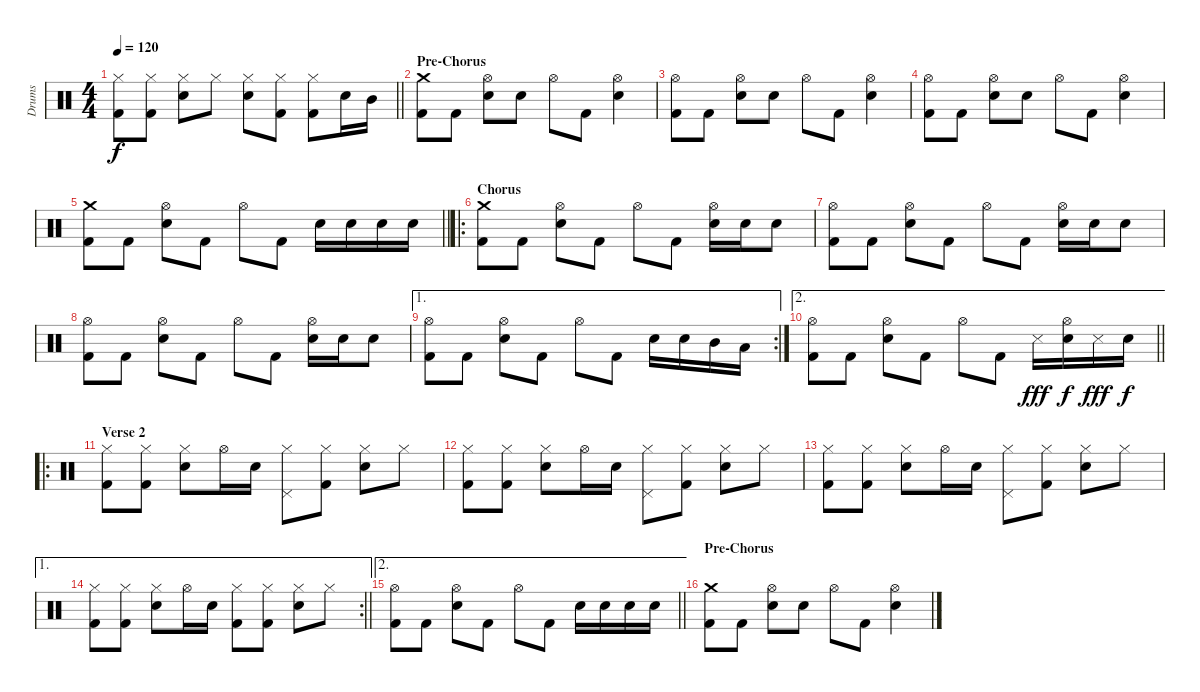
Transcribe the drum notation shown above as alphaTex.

\track ("Drums" "Drums") {instrument percussion}
\staff {score}
\articulation defaults
\ts (4 4)
\tempo 120
\clef neutral
\barLineRight lightlight
\ks c
("Hi-Hat (closed)" "Kick (hit) 2").8{dy f} ("Hi-Hat (closed)" "Kick (hit) 2").8 ("Hi-Hat (closed)" "Electric Snare (hit)").8 "Hi-Hat (closed)".8 ("Hi-Hat (closed)" "Electric Snare (hit)").8 ("Hi-Hat (closed)" "Kick (hit) 2").8 ("Hi-Hat (closed)" "Kick (hit) 2").8 "Electric Snare (hit)".16 "Mid Tom (hit)".16 |
\section ("" "Pre-Chorus")
("Crash medium (hit)" "Kick (hit) 2").8 "Kick (hit) 2".8 ("Hi-Hat (open)" "Electric Snare (hit)").8 "Electric Snare (hit)".8 "Hi-Hat (open)".8 "Kick (hit) 2".8 ("Hi-Hat (open)" "Electric Snare (hit)").4 |
("Hi-Hat (open)" "Kick (hit) 2").8 "Kick (hit) 2".8 ("Hi-Hat (open)" "Electric Snare (hit)").8 "Electric Snare (hit)".8 "Hi-Hat (open)".8 "Kick (hit) 2".8 ("Hi-Hat (open)" "Electric Snare (hit)").4 |
("Hi-Hat (open)" "Kick (hit) 2").8 "Kick (hit) 2".8 ("Hi-Hat (open)" "Electric Snare (hit)").8 "Electric Snare (hit)".8 "Hi-Hat (open)".8 "Kick (hit) 2".8 ("Hi-Hat (open)" "Electric Snare (hit)").4 |
\barLineRight lightlight
("Crash medium (hit)" "Kick (hit) 2").8 "Kick (hit) 2".8 ("Hi-Hat (open)" "Electric Snare (hit)").8 "Kick (hit) 2".8 "Hi-Hat (open)".8 "Kick (hit) 2".8 "Electric Snare (hit)".16 "Electric Snare (hit)".16 "Electric Snare (hit)".16 "Electric Snare (hit)".16 |
\ro
\section ("" "Chorus")
("Crash medium (hit)" "Kick (hit) 2").8 "Kick (hit) 2".8 ("Hi-Hat (open)" "Electric Snare (hit)").8 "Kick (hit) 2".8 "Hi-Hat (open)".8 "Kick (hit) 2".8 ("Hi-Hat (open)" "Electric Snare (hit)").16 "Electric Snare (hit)".16 "Electric Snare (hit)".8 |
("Hi-Hat (open)" "Kick (hit) 2").8 "Kick (hit) 2".8 ("Hi-Hat (open)" "Electric Snare (hit)").8 "Kick (hit) 2".8 "Hi-Hat (open)".8 "Kick (hit) 2".8 ("Hi-Hat (open)" "Electric Snare (hit)").16 "Electric Snare (hit)".16 "Electric Snare (hit)".8 |
("Hi-Hat (open)" "Kick (hit) 2").8 "Kick (hit) 2".8 ("Hi-Hat (open)" "Electric Snare (hit)").8 "Kick (hit) 2".8 "Hi-Hat (open)".8 "Kick (hit) 2".8 ("Hi-Hat (open)" "Electric Snare (hit)").16 "Electric Snare (hit)".16 "Electric Snare (hit)".8 |
\ae 1
\rc 2
("Hi-Hat (open)" "Kick (hit) 2").8 "Kick (hit) 2".8 ("Hi-Hat (open)" "Electric Snare (hit)").8 "Kick (hit) 2".8 "Hi-Hat (open)".8 "Kick (hit) 2".8 "Electric Snare (hit)".16 "Electric Snare (hit)".16 "Mid Tom (hit)".16 "Low Tom (hit)".16 |
\ae 2
\barLineRight lightlight
("Hi-Hat (open)" "Kick (hit) 2").8 "Kick (hit) 2".8 ("Hi-Hat (open)" "Electric Snare (hit)").8 "Kick (hit) 2".8 "Hi-Hat (open)".8 "Kick (hit) 2".8 "Snare (side stick) 3".16{dy fff} ("Hi-Hat (open)" "Electric Snare (hit)").16{dy f} "Snare (side stick) 3".16{dy fff} "Electric Snare (hit)".16{dy f} |
\ro
\section ("" "Verse 2")
("Hi-Hat (closed)" "Kick (hit) 2").8 ("Hi-Hat (closed)" "Kick (hit) 2").8 ("Hi-Hat (closed)" "Electric Snare (hit)").8 "Hi-Hat (open)".16 "Electric Snare (hit)".16 ("Hi-Hat (closed)" "Pedal Hi-Hat (hit)").8 ("Hi-Hat (closed)" "Kick (hit) 2").8 ("Hi-Hat (closed)" "Electric Snare (hit)").8 "Hi-Hat (closed)".8 |
("Hi-Hat (closed)" "Kick (hit) 2").8 ("Hi-Hat (closed)" "Kick (hit) 2").8 ("Hi-Hat (closed)" "Electric Snare (hit)").8 "Hi-Hat (open)".16 "Electric Snare (hit)".16 ("Hi-Hat (closed)" "Pedal Hi-Hat (hit)").8 ("Hi-Hat (closed)" "Kick (hit) 2").8 ("Hi-Hat (closed)" "Electric Snare (hit)").8 "Hi-Hat (closed)".8 |
("Hi-Hat (closed)" "Kick (hit) 2").8 ("Hi-Hat (closed)" "Kick (hit) 2").8 ("Hi-Hat (closed)" "Electric Snare (hit)").8 "Hi-Hat (open)".16 "Electric Snare (hit)".16 ("Hi-Hat (closed)" "Pedal Hi-Hat (hit)").8 ("Hi-Hat (closed)" "Kick (hit) 2").8 ("Hi-Hat (closed)" "Electric Snare (hit)").8 "Hi-Hat (closed)".8 |
\ae 1
\rc 2
\barLineRight lightlight
("Hi-Hat (closed)" "Kick (hit) 2").8 ("Hi-Hat (closed)" "Kick (hit) 2").8 ("Hi-Hat (closed)" "Electric Snare (hit)").8 "Hi-Hat (open)".16 "Electric Snare (hit)".16 ("Hi-Hat (closed)" "Kick (hit) 2").8 ("Hi-Hat (closed)" "Kick (hit) 2").8 ("Hi-Hat (closed)" "Electric Snare (hit)").8 "Hi-Hat (closed)".8 |
\ae 2
\barLineRight lightlight
("Hi-Hat (open)" "Kick (hit) 2").8 "Kick (hit) 2".8 ("Hi-Hat (open)" "Electric Snare (hit)").8 "Kick (hit) 2".8 "Hi-Hat (open)".8 "Kick (hit) 2".8 "Electric Snare (hit)".16 "Electric Snare (hit)".16 "Electric Snare (hit)".16 "Electric Snare (hit)".16 |
\section ("" "Pre-Chorus")
("Crash medium (hit)" "Kick (hit) 2").8 "Kick (hit) 2".8 ("Hi-Hat (open)" "Electric Snare (hit)").8 "Electric Snare (hit)".8 "Hi-Hat (open)".8 "Kick (hit) 2".8 ("Hi-Hat (open)" "Electric Snare (hit)").4
